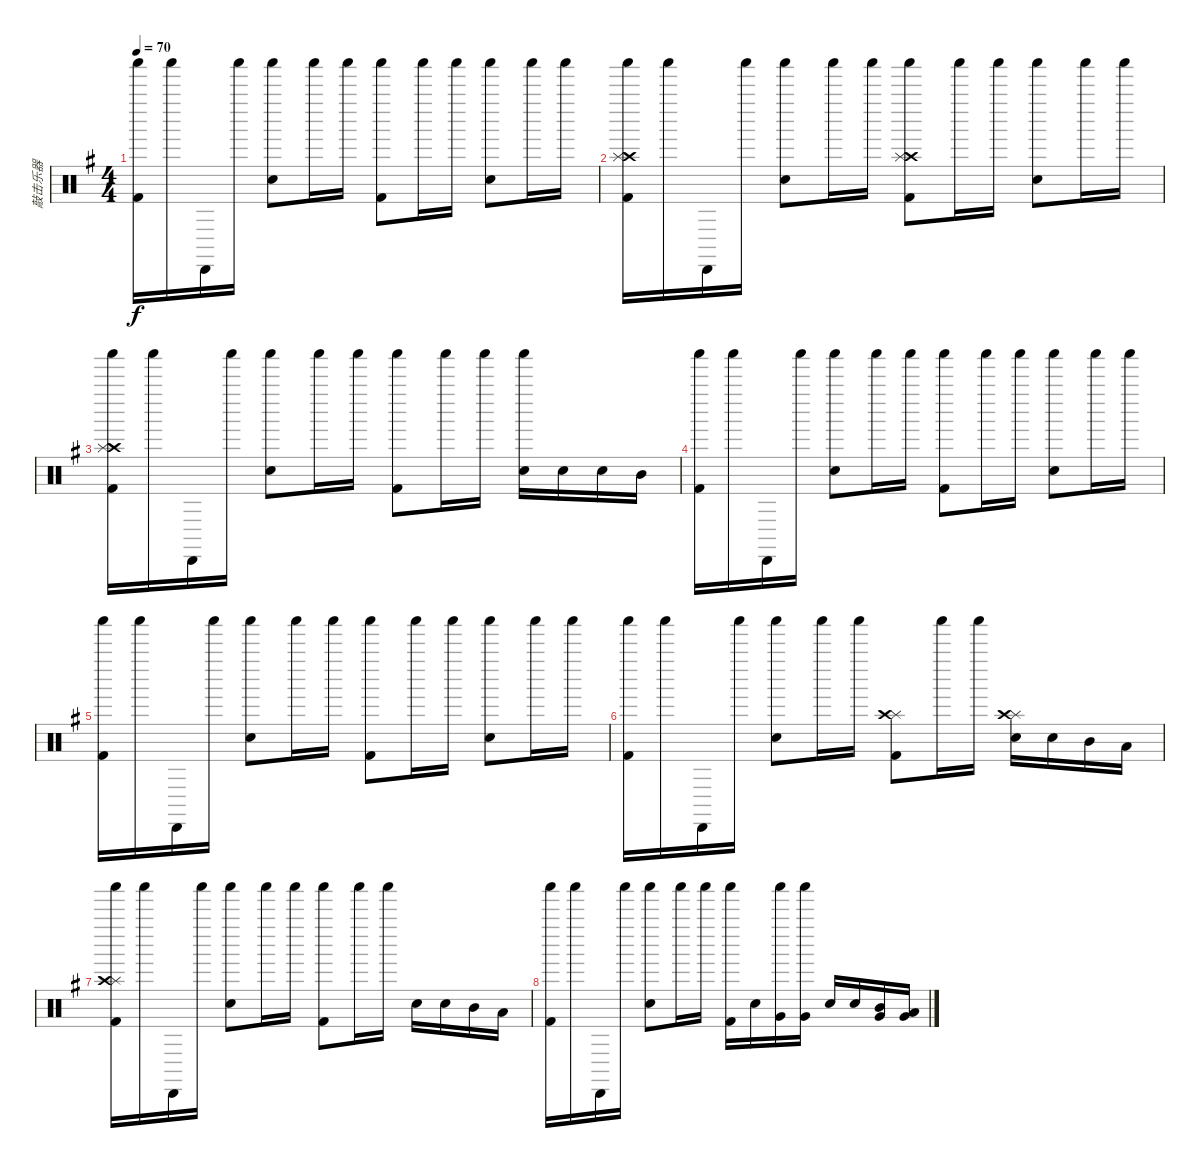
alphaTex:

\track ("敲击乐器" "敲击乐器") {instrument percussion}
\staff {score}
\articulation defaults
\ts (4 4)
\tempo 70
\clef neutral
\ks g
("Shaker (hit)" "Kick (hit) 2").16{dy f} "Shaker (hit)".16 "Cabasa (hit)".16 "Shaker (hit)".16 ("Shaker (hit)" "Snare (hit) 2").8 "Shaker (hit)".16 "Shaker (hit)".16 ("Shaker (hit)" "Kick (hit) 2").8 "Shaker (hit)".16 "Shaker (hit)".16 ("Shaker (hit)" "Snare (hit) 2").8 "Shaker (hit)".16 "Shaker (hit)".16 |
("Crash high (hit)" "Shaker (hit)" "Splash (hit)" "Kick (hit) 2").16 "Shaker (hit)".16 "Cabasa (hit)".16 "Shaker (hit)".16 ("Shaker (hit)" "Snare (hit) 2").8 "Shaker (hit)".16 "Shaker (hit)".16 ("Crash high (hit)" "Shaker (hit)" "Splash (hit)" "Kick (hit) 2").8 "Shaker (hit)".16 "Shaker (hit)".16 ("Shaker (hit)" "Snare (hit) 2").8 "Shaker (hit)".16 "Shaker (hit)".16 |
("Crash high (hit)" "Shaker (hit)" "Splash (hit)" "Kick (hit) 2").16 "Shaker (hit)".16 "Cabasa (hit)".16 "Shaker (hit)".16 ("Shaker (hit)" "Snare (hit) 2").8 "Shaker (hit)".16 "Shaker (hit)".16 ("Shaker (hit)" "Kick (hit) 2").8 "Shaker (hit)".16 "Shaker (hit)".16 ("Shaker (hit)" "Snare (hit) 2").16 "Snare (hit) 2".16 "Snare (hit) 2".16 "Mid Tom (hit)".16 |
("Shaker (hit)" "Kick (hit) 2").16 "Shaker (hit)".16 "Cabasa (hit)".16 "Shaker (hit)".16 ("Shaker (hit)" "Snare (hit) 2").8 "Shaker (hit)".16 "Shaker (hit)".16 ("Shaker (hit)" "Kick (hit) 2").8 "Shaker (hit)".16 "Shaker (hit)".16 ("Shaker (hit)" "Snare (hit) 2").8 "Shaker (hit)".16 "Shaker (hit)".16 |
("Shaker (hit)" "Kick (hit) 2").16 "Shaker (hit)".16 "Cabasa (hit)".16 "Shaker (hit)".16 ("Shaker (hit)" "Snare (hit) 2").8 "Shaker (hit)".16 "Shaker (hit)".16 ("Shaker (hit)" "Kick (hit) 2").8 "Shaker (hit)".16 "Shaker (hit)".16 ("Shaker (hit)" "Snare (hit) 2").8 "Shaker (hit)".16 "Shaker (hit)".16 |
("Shaker (hit)" "Kick (hit) 2").16 "Shaker (hit)".16 "Cabasa (hit)".16 "Shaker (hit)".16 ("Shaker (hit)" "Snare (hit) 2").8 "Shaker (hit)".16 "Shaker (hit)".16 ("Splash (hit)" "Crash high (hit)" "Kick (hit) 2").8 "Shaker (hit)".16 "Shaker (hit)".16 ("Splash (hit)" "Crash high (hit)" "Snare (hit) 2").16 "Snare (hit) 2".16 "Mid Tom (hit)".16 "Low Tom (hit)".16 |
("Splash (hit)" "Shaker (hit)" "Crash high (hit)" "Kick (hit) 2").16 "Shaker (hit)".16 "Cabasa (hit)".16 "Shaker (hit)".16 ("Shaker (hit)" "Snare (hit) 2").8 "Shaker (hit)".16 "Shaker (hit)".16 ("Shaker (hit)" "Kick (hit) 2").8 "Shaker (hit)".16 "Shaker (hit)".16 "Snare (hit) 2".16 "Snare (hit) 2".16 "Mid Tom (hit)".16 "Low Tom (hit)".16 |
("Shaker (hit)" "Kick (hit) 2").16 "Shaker (hit)".16 "Cabasa (hit)".16 "Shaker (hit)".16 ("Shaker (hit)" "Snare (hit) 2").8 "Shaker (hit)".16 "Shaker (hit)".16 ("Shaker (hit)" "Kick (hit) 2").16 "Snare (hit) 2".16 ("Shaker (hit)" "Very Low Tom (hit)").16 ("Shaker (hit)" "Very Low Tom (hit)").16 "Snare (hit) 2".16 "Snare (hit) 2".16 ("Mid Tom (hit)" "Very Low Tom (hit)").16 ("Low Tom (hit)" "Very Low Tom (hit)").16
